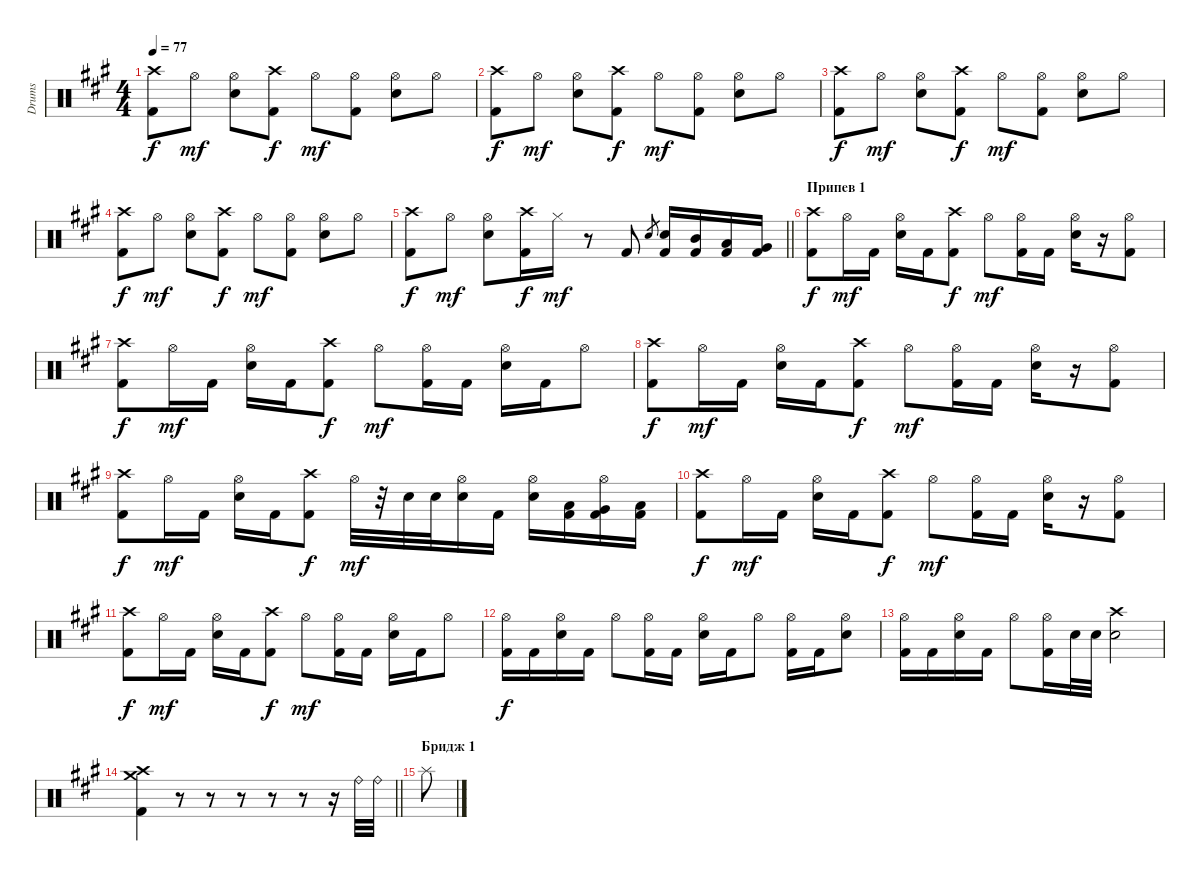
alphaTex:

\track ("Drums" "Drums") {instrument percussion}
\staff {score}
\articulation defaults
\ts (4 4)
\tempo 77
\clef neutral
\ks f#minor
("Crash high (hit)" "Kick (hit) 2").8{dy f} "Hi-Hat (open)".8{dy mf} ("Hi-Hat (open)" "Electric Snare (hit)").8 ("Crash high (hit)" "Kick (hit) 2").8{dy f} "Hi-Hat (open)".8{dy mf} ("Hi-Hat (open)" "Kick (hit) 2").8 ("Hi-Hat (open)" "Electric Snare (hit)").8 "Hi-Hat (open)".8 |
("Crash high (hit)" "Kick (hit) 2").8{dy f} "Hi-Hat (open)".8{dy mf} ("Hi-Hat (open)" "Electric Snare (hit)").8 ("Crash high (hit)" "Kick (hit) 2").8{dy f} "Hi-Hat (open)".8{dy mf} ("Hi-Hat (open)" "Kick (hit) 2").8 ("Hi-Hat (open)" "Electric Snare (hit)").8 "Hi-Hat (open)".8 |
("Crash high (hit)" "Kick (hit) 2").8{dy f} "Hi-Hat (open)".8{dy mf} ("Hi-Hat (open)" "Electric Snare (hit)").8 ("Crash high (hit)" "Kick (hit) 2").8{dy f} "Hi-Hat (open)".8{dy mf} ("Hi-Hat (open)" "Kick (hit) 2").8 ("Hi-Hat (open)" "Electric Snare (hit)").8 "Hi-Hat (open)".8 |
("Crash high (hit)" "Kick (hit) 2").8{dy f} "Hi-Hat (open)".8{dy mf} ("Hi-Hat (open)" "Electric Snare (hit)").8 ("Crash high (hit)" "Kick (hit) 2").8{dy f} "Hi-Hat (open)".8{dy mf} ("Hi-Hat (open)" "Kick (hit) 2").8 ("Hi-Hat (open)" "Electric Snare (hit)").8 "Hi-Hat (open)".8 |
\barLineRight lightlight
("Crash high (hit)" "Kick (hit) 2").8{dy f} "Hi-Hat (open)".8{dy mf} ("Hi-Hat (open)" "Electric Snare (hit)").8 ("Crash high (hit)" "Kick (hit) 2").16{dy f} "Hi-Hat (closed)".16{dy mf} r.8 "Kick (hit) 2".8 "Electric Snare (hit)".8{gr} ("Electric Snare (hit)" "Kick (hit) 2").16 ("Mid Tom (hit)" "Kick (hit) 2").16 ("Low Tom (hit)" "Kick (hit) 2").16 ("Very Low Tom (hit)" "Kick (hit) 2").16 |
\section ("" "Припев 1")
("Crash high (hit)" "Kick (hit) 2").8{dy f} "Hi-Hat (open)".16{dy mf} "Kick (hit) 2".16 ("Hi-Hat (open)" "Electric Snare (hit)").16 "Kick (hit) 2".16 ("Crash high (hit)" "Kick (hit) 2").8{dy f} "Hi-Hat (open)".8{dy mf} ("Hi-Hat (open)" "Kick (hit) 2").16 "Kick (hit) 2".16 ("Hi-Hat (open)" "Electric Snare (hit)").16 r.16 ("Hi-Hat (open)" "Kick (hit) 2").8 |
("Crash high (hit)" "Kick (hit) 2").8{dy f} "Hi-Hat (open)".16{dy mf} "Kick (hit) 2".16 ("Hi-Hat (open)" "Electric Snare (hit)").16 "Kick (hit) 2".16 ("Crash high (hit)" "Kick (hit) 2").8{dy f} "Hi-Hat (open)".8{dy mf} ("Hi-Hat (open)" "Kick (hit) 2").16 "Kick (hit) 2".16 ("Hi-Hat (open)" "Electric Snare (hit)").16 "Kick (hit) 2".16 "Hi-Hat (open)".8 |
("Crash high (hit)" "Kick (hit) 2").8{dy f} "Hi-Hat (open)".16{dy mf} "Kick (hit) 2".16 ("Hi-Hat (open)" "Electric Snare (hit)").16 "Kick (hit) 2".16 ("Crash high (hit)" "Kick (hit) 2").8{dy f} "Hi-Hat (open)".8{dy mf} ("Hi-Hat (open)" "Kick (hit) 2").16 "Kick (hit) 2".16 ("Hi-Hat (open)" "Electric Snare (hit)").16 r.16 ("Hi-Hat (open)" "Kick (hit) 2").8 |
("Crash high (hit)" "Kick (hit) 2").8{dy f} "Hi-Hat (open)".16{dy mf} "Kick (hit) 2".16 ("Hi-Hat (open)" "Electric Snare (hit)").16 "Kick (hit) 2".16 ("Crash high (hit)" "Kick (hit) 2").8{dy f} "Hi-Hat (open)".32{dy mf} r.32 "Electric Snare (hit)".32 "Electric Snare (hit)".32 ("Hi-Hat (open)" "Electric Snare (hit)").16 "Kick (hit) 2".16 ("Hi-Hat (open)" "Electric Snare (hit)").16 ("Low Tom (hit)" "Kick (hit) 2").16 ("Hi-Hat (open)" "Very Low Tom (hit)" "Kick (hit) 2").16 ("Low Floor Tom (hit)" "Kick (hit) 2").16 |
("Crash high (hit)" "Kick (hit) 2").8{dy f} "Hi-Hat (open)".16{dy mf} "Kick (hit) 2".16 ("Hi-Hat (open)" "Electric Snare (hit)").16 "Kick (hit) 2".16 ("Crash high (hit)" "Kick (hit) 2").8{dy f} "Hi-Hat (open)".8{dy mf} ("Hi-Hat (open)" "Kick (hit) 2").16 "Kick (hit) 2".16 ("Hi-Hat (open)" "Electric Snare (hit)").16 r.16 ("Hi-Hat (open)" "Kick (hit) 2").8 |
("Crash high (hit)" "Kick (hit) 2").8{dy f} "Hi-Hat (open)".16{dy mf} "Kick (hit) 2".16 ("Hi-Hat (open)" "Electric Snare (hit)").16 "Kick (hit) 2".16 ("Crash high (hit)" "Kick (hit) 2").8{dy f} "Hi-Hat (open)".8{dy mf} ("Hi-Hat (open)" "Kick (hit) 2").16 "Kick (hit) 2".16 ("Hi-Hat (open)" "Electric Snare (hit)").16 "Kick (hit) 2".16 "Hi-Hat (open)".8 |
("Hi-Hat (open)" "Kick (hit) 2").16{dy f} "Kick (hit) 2".16 ("Hi-Hat (open)" "Electric Snare (hit)").16 "Kick (hit) 2".16 "Hi-Hat (open)".8 ("Hi-Hat (open)" "Kick (hit) 2").16 "Kick (hit) 2".16 ("Hi-Hat (open)" "Electric Snare (hit)").16 "Kick (hit) 2".16 "Hi-Hat (open)".8 ("Hi-Hat (open)" "Kick (hit) 2").16 "Kick (hit) 2".16 ("Hi-Hat (open)" "Electric Snare (hit)").8 |
("Hi-Hat (open)" "Kick (hit) 2").16 "Kick (hit) 2".16 ("Hi-Hat (open)" "Electric Snare (hit)").16 "Kick (hit) 2".16 "Hi-Hat (open)".8 ("Hi-Hat (open)" "Kick (hit) 2").16 "Electric Snare (hit)".32 "Electric Snare (hit)".32 ("Crash high (hit)" "Electric Snare (hit)").2 |
\barLineRight lightlight
("Crash high (hit)" "Crash medium (hit)" "Kick (hit) 2").4 r.8 r.8 r.8 r.8 r.8 r.16 "Ride (bell)".32 "Ride (bell)".32 |
\section ("" "Бридж 1")
"Splash (hit)".8
